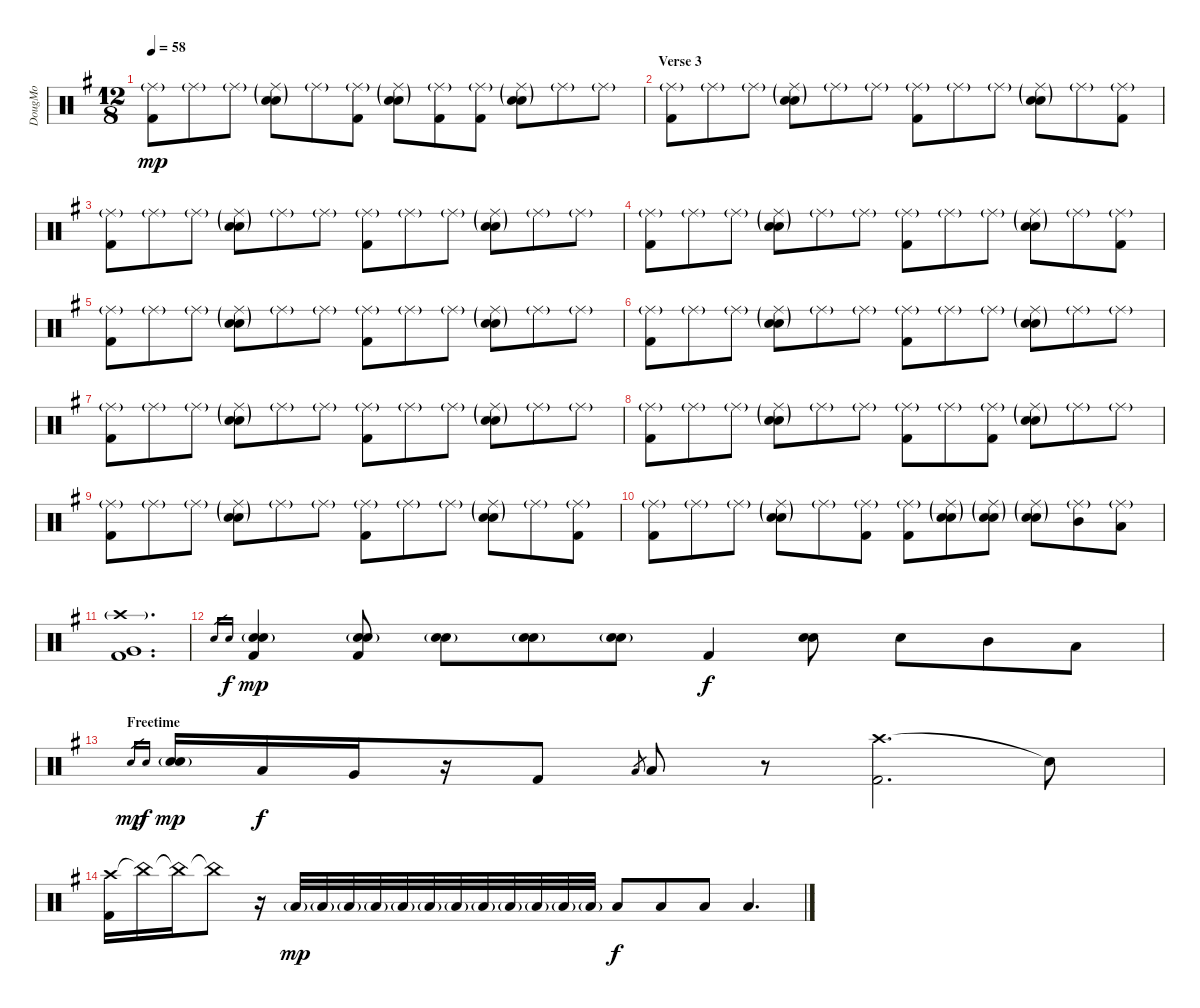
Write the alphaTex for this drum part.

\track ("DougMo" "DougMo") {instrument percussion}
\staff {score}
\articulation defaults
\ts (12 8)
\tempo 58
\clef neutral
\ks g
("Ride (middle)"{g} "Kick (hit) 2").8{dy mp} "Ride (middle)"{g}.8 "Ride (middle)"{g}.8 ("Ride (middle)"{g} "Electric Snare (hit)"{g} "Snare (hit) 2").8 "Ride (middle)"{g}.8 ("Ride (middle)"{g} "Kick (hit) 2").8 ("Ride (middle)"{g} "Electric Snare (hit)"{g} "Snare (hit) 2").8 ("Ride (middle)"{g} "Kick (hit) 2").8 ("Ride (middle)"{g} "Kick (hit) 2").8 ("Ride (middle)"{g} "Electric Snare (hit)"{g} "Snare (hit) 2").8 "Ride (middle)"{g}.8 "Ride (middle)"{g}.8 |
\section ("" "Verse 3")
("Ride (middle)"{g} "Kick (hit) 2").8 "Ride (middle)"{g}.8 "Ride (middle)"{g}.8 ("Ride (middle)"{g} "Electric Snare (hit)"{g} "Snare (hit) 2").8 "Ride (middle)"{g}.8 "Ride (middle)"{g}.8 ("Ride (middle)"{g} "Kick (hit) 2").8 "Ride (middle)"{g}.8 "Ride (middle)"{g}.8 ("Ride (middle)"{g} "Electric Snare (hit)"{g} "Snare (hit) 2").8 "Ride (middle)"{g}.8 ("Ride (middle)"{g} "Kick (hit) 2").8 |
("Ride (middle)"{g} "Kick (hit) 2").8 "Ride (middle)"{g}.8 "Ride (middle)"{g}.8 ("Ride (middle)"{g} "Electric Snare (hit)"{g} "Snare (hit) 2").8 "Ride (middle)"{g}.8 "Ride (middle)"{g}.8 ("Ride (middle)"{g} "Kick (hit) 2").8 "Ride (middle)"{g}.8 "Ride (middle)"{g}.8 ("Ride (middle)"{g} "Electric Snare (hit)"{g} "Snare (hit) 2").8 "Ride (middle)"{g}.8 "Ride (middle)"{g}.8 |
("Ride (middle)"{g} "Kick (hit) 2").8 "Ride (middle)"{g}.8 "Ride (middle)"{g}.8 ("Ride (middle)"{g} "Electric Snare (hit)"{g} "Snare (hit) 2").8 "Ride (middle)"{g}.8 "Ride (middle)"{g}.8 ("Ride (middle)"{g} "Kick (hit) 2").8 "Ride (middle)"{g}.8 "Ride (middle)"{g}.8 ("Ride (middle)"{g} "Electric Snare (hit)"{g} "Snare (hit) 2").8 "Ride (middle)"{g}.8 ("Ride (middle)"{g} "Kick (hit) 2").8 |
("Ride (middle)"{g} "Kick (hit) 2").8 "Ride (middle)"{g}.8 "Ride (middle)"{g}.8 ("Ride (middle)"{g} "Electric Snare (hit)"{g} "Snare (hit) 2").8 "Ride (middle)"{g}.8 "Ride (middle)"{g}.8 ("Ride (middle)"{g} "Kick (hit) 2").8 "Ride (middle)"{g}.8 "Ride (middle)"{g}.8 ("Ride (middle)"{g} "Electric Snare (hit)"{g} "Snare (hit) 2").8 "Ride (middle)"{g}.8 "Ride (middle)"{g}.8 |
("Ride (middle)"{g} "Kick (hit) 2").8 "Ride (middle)"{g}.8 "Ride (middle)"{g}.8 ("Ride (middle)"{g} "Electric Snare (hit)"{g} "Snare (hit) 2").8 "Ride (middle)"{g}.8 "Ride (middle)"{g}.8 ("Ride (middle)"{g} "Kick (hit) 2").8 "Ride (middle)"{g}.8 "Ride (middle)"{g}.8 ("Ride (middle)"{g} "Electric Snare (hit)"{g} "Snare (hit) 2").8 "Ride (middle)"{g}.8 "Ride (middle)"{g}.8 |
("Ride (middle)"{g} "Kick (hit) 2").8 "Ride (middle)"{g}.8 "Ride (middle)"{g}.8 ("Ride (middle)"{g} "Electric Snare (hit)"{g} "Snare (hit) 2").8 "Ride (middle)"{g}.8 "Ride (middle)"{g}.8 ("Ride (middle)"{g} "Kick (hit) 2").8 "Ride (middle)"{g}.8 "Ride (middle)"{g}.8 ("Ride (middle)"{g} "Electric Snare (hit)"{g} "Snare (hit) 2").8 "Ride (middle)"{g}.8 "Ride (middle)"{g}.8 |
("Ride (middle)"{g} "Kick (hit) 2").8 "Ride (middle)"{g}.8 "Ride (middle)"{g}.8 ("Ride (middle)"{g} "Electric Snare (hit)"{g} "Snare (hit) 2").8 "Ride (middle)"{g}.8 "Ride (middle)"{g}.8 ("Ride (middle)"{g} "Kick (hit) 2").8 "Ride (middle)"{g}.8 ("Ride (middle)"{g} "Kick (hit) 2").8 ("Ride (middle)"{g} "Electric Snare (hit)"{g} "Snare (hit) 2").8 "Ride (middle)"{g}.8 "Ride (middle)"{g}.8 |
("Ride (middle)"{g} "Kick (hit) 2").8 "Ride (middle)"{g}.8 "Ride (middle)"{g}.8 ("Ride (middle)"{g} "Electric Snare (hit)"{g} "Snare (hit) 2").8 "Ride (middle)"{g}.8 "Ride (middle)"{g}.8 ("Ride (middle)"{g} "Kick (hit) 2").8 "Ride (middle)"{g}.8 "Ride (middle)"{g}.8 ("Ride (middle)"{g} "Electric Snare (hit)"{g} "Snare (hit) 2").8 "Ride (middle)"{g}.8 ("Ride (middle)"{g} "Kick (hit) 2").8 |
("Ride (middle)"{g} "Kick (hit) 2").8 "Ride (middle)"{g}.8 "Ride (middle)"{g}.8 ("Ride (middle)"{g} "Electric Snare (hit)"{g} "Snare (hit) 2").8 "Ride (middle)"{g}.8 ("Ride (middle)"{g} "Kick (hit) 2").8 ("Ride (middle)"{g} "Kick (hit) 2").8 ("Ride (middle)"{g} "Electric Snare (hit)"{g} "Snare (hit) 2").8 ("Ride (middle)"{g} "Electric Snare (hit)"{g} "Snare (hit) 2").8 ("Ride (middle)"{g} "Electric Snare (hit)"{g} "Snare (hit) 2").8 ("Ride (middle)"{g} "Mid Tom (hit)").8 ("Ride (middle)"{g} "Low Tom (hit)").8 |
("Crash high (hit)"{g} "Very Low Tom (hit)" "Kick (hit) 2").1{d} |
"Electric Snare (hit)".16{gr} "Snare (hit) 2".16{gr dy f} ("Electric Snare (hit)"{g} "Snare (hit) 2" "Kick (hit) 2").4{dy mp} ("Electric Snare (hit)"{g} "Snare (hit) 2" "Kick (hit) 2").8 ("Electric Snare (hit)"{g} "Snare (hit) 2").8 ("Electric Snare (hit)"{g} "Snare (hit) 2").8 ("Electric Snare (hit)"{g} "Snare (hit) 2").8 "Kick (hit) 2".4{dy f} ("Electric Snare (hit)" "Snare (hit) 2").8 "Snare (hit) 2".8 "Mid Tom (hit)".8 "Low Tom (hit)".8 |
\section ("" "Freetime")
"Electric Snare (hit)".16{gr dy mp} "Snare (hit) 2".16{gr dy f} ("Electric Snare (hit)"{g} "Snare (hit) 2").16{dy mp} "Low Tom (hit)".16{dy f} "Very Low Tom (hit)".16 r.16 "Kick (hit) 2".8 "Low Tom (hit)".8{gr} "Low Tom (hit)".8 r.8 ("Crash high (hit)" "Kick (hit) 2").2{d} "Snare (hit)"{t}.8 |
("Crash high (hit)" "Kick (hit) 2").16 "China (hit)"{t}.16 "China (hit)"{t}.16 "China (hit)"{t}.8 r.16 "Low Floor Tom (hit)"{g}.32{dy mp} "Low Floor Tom (hit)"{g}.32 "Low Floor Tom (hit)"{g}.32 "Low Floor Tom (hit)"{g}.32 "Low Floor Tom (hit)"{g}.32 "Low Floor Tom (hit)"{g}.32 "Low Floor Tom (hit)"{g}.32 "Low Floor Tom (hit)"{g}.32 "Low Floor Tom (hit)"{g}.32 "Low Floor Tom (hit)"{g}.32 "Low Floor Tom (hit)"{g}.32 "Low Floor Tom (hit)"{g}.32 "Low Floor Tom (hit)".8{dy f} "Low Floor Tom (hit)".8 "Low Floor Tom (hit)".8 "Low Floor Tom (hit)".4{d}
